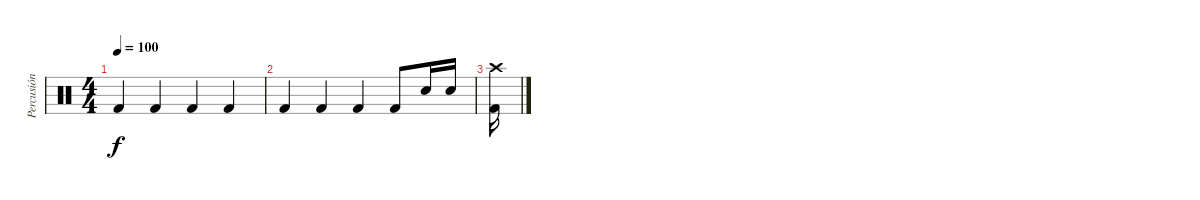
\track ("Percusión" "Percusión") {instrument percussion}
\staff {score}
\articulation defaults
\ts (4 4)
\tempo 100
\clef neutral
\ks c "Kick (hit) 2".4{dy f} "Kick (hit) 2".4 "Kick (hit) 2".4 "Kick (hit) 2".4
|
"Kick (hit) 2".4 "Kick (hit) 2".4 "Kick (hit) 2".4 "Kick (hit) 2".8 "Snare (hit) 2".16 "Snare (hit) 2".16 |
("Kick (hit) 2" "Crash high (hit)").16
